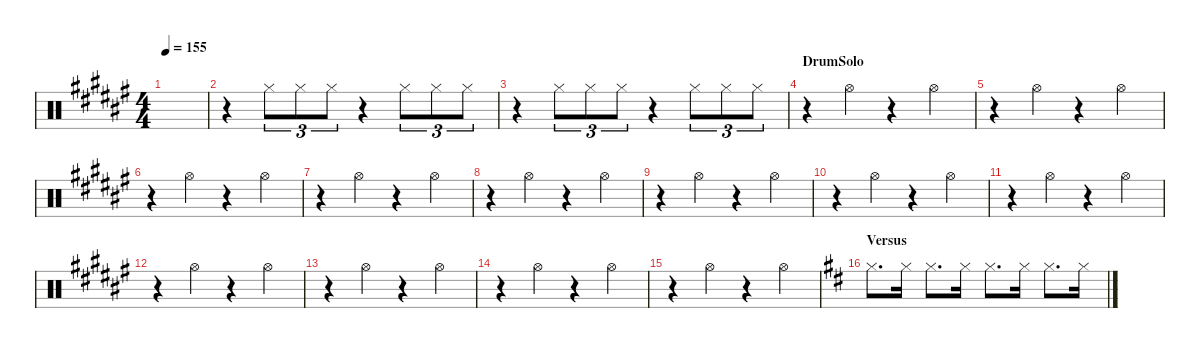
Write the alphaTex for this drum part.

\hideDynamics
\bracketExtendMode nobrackets
\singleTrackTrackNamePolicy hidden
\multiTrackTrackNamePolicy hidden
\otherSystemsTrackNameOrientation horizontal
\track ("Perc" "Drums") {instrument percussion}
\staff {score}
\articulation defaults
\ts (4 4)
\tempo 155
\clef neutral
\ks f#
|
r.4{beam Down} "Hi-Hat (closed)"{acc forcenatural}.8{tu (3 2) dy mp beam Down} "Hi-Hat (closed)"{acc forcenatural}.8{tu (3 2) beam Down} "Hi-Hat (closed)"{acc forcenatural}.8{tu (3 2) beam Down} r.4{beam Down} "Hi-Hat (closed)"{acc forcenatural}.8{tu (3 2) beam Down} "Hi-Hat (closed)"{acc forcenatural}.8{tu (3 2) beam Down} "Hi-Hat (closed)"{acc forcenatural}.8{tu (3 2) beam Down} |
r.4{beam Down} "Hi-Hat (closed)"{acc forcenatural}.8{tu (3 2) beam Down} "Hi-Hat (closed)"{acc forcenatural}.8{tu (3 2) beam Down} "Hi-Hat (closed)"{acc forcenatural}.8{tu (3 2) beam Down} r.4{beam Down} "Hi-Hat (closed)"{acc forcenatural}.8{tu (3 2) beam Down} "Hi-Hat (closed)"{acc forcenatural}.8{tu (3 2) beam Down} "Hi-Hat (closed)"{acc forcenatural}.8{tu (3 2) beam Down} |
\section ("" "DrumSolo")
r.4{beam Down} "Hi-Hat (open)"{acc forcenatural}.4{beam Down} r.4{beam Down} "Hi-Hat (open)"{acc forcenatural}.4{beam Down} |
r.4{beam Down} "Hi-Hat (open)"{acc forcenatural}.4{beam Down} r.4{beam Down} "Hi-Hat (open)"{acc forcenatural}.4{beam Down} |
r.4{beam Down} "Hi-Hat (open)"{acc forcenatural}.4{beam Down} r.4{beam Down} "Hi-Hat (open)"{acc forcenatural}.4{beam Down} |
r.4{beam Down} "Hi-Hat (open)"{acc forcenatural}.4{beam Down} r.4{beam Down} "Hi-Hat (open)"{acc forcenatural}.4{beam Down} |
r.4{beam Down} "Hi-Hat (open)"{acc forcenatural}.4{beam Down} r.4{beam Down} "Hi-Hat (open)"{acc forcenatural}.4{beam Down} |
r.4{beam Down} "Hi-Hat (open)"{acc forcenatural}.4{beam Down} r.4{beam Down} "Hi-Hat (open)"{acc forcenatural}.4{beam Down} |
r.4{beam Down} "Hi-Hat (open)"{acc forcenatural}.4{beam Down} r.4{beam Down} "Hi-Hat (open)"{acc forcenatural}.4{beam Down} |
r.4{beam Down} "Hi-Hat (open)"{acc forcenatural}.4{beam Down} r.4{beam Down} "Hi-Hat (open)"{acc forcenatural}.4{beam Down} |
r.4{beam Down} "Hi-Hat (open)"{acc forcenatural}.4{beam Down} r.4{beam Down} "Hi-Hat (open)"{acc forcenatural}.4{beam Down} |
r.4{beam Down} "Hi-Hat (open)"{acc forcenatural}.4{beam Down} r.4{beam Down} "Hi-Hat (open)"{acc forcenatural}.4{beam Down} |
r.4{beam Down} "Hi-Hat (open)"{acc forcenatural}.4{beam Down} r.4{beam Down} "Hi-Hat (open)"{acc forcenatural}.4{beam Down} |
r.4{beam Down} "Hi-Hat (open)"{acc forcenatural}.4{beam Down} r.4{beam Down} "Hi-Hat (open)"{acc forcenatural}.4{beam Down} |
\section ("" "Versus")
\ks d "Hi-Hat (closed)"{acc forcenatural}.8{d dy p beam Down} "Hi-Hat (closed)"{acc forcenatural}.16{beam Down} "Hi-Hat (closed)"{acc forcenatural}.8{d beam Down} "Hi-Hat (closed)"{acc forcenatural}.16{dy mp beam Down} "Hi-Hat (closed)"{acc forcenatural}.8{d dy p beam Down} "Hi-Hat (closed)"{acc forcenatural}.16{beam Down} "Hi-Hat (closed)"{acc forcenatural}.8{d beam Down} "Hi-Hat (closed)"{acc forcenatural}.16{beam Down}
